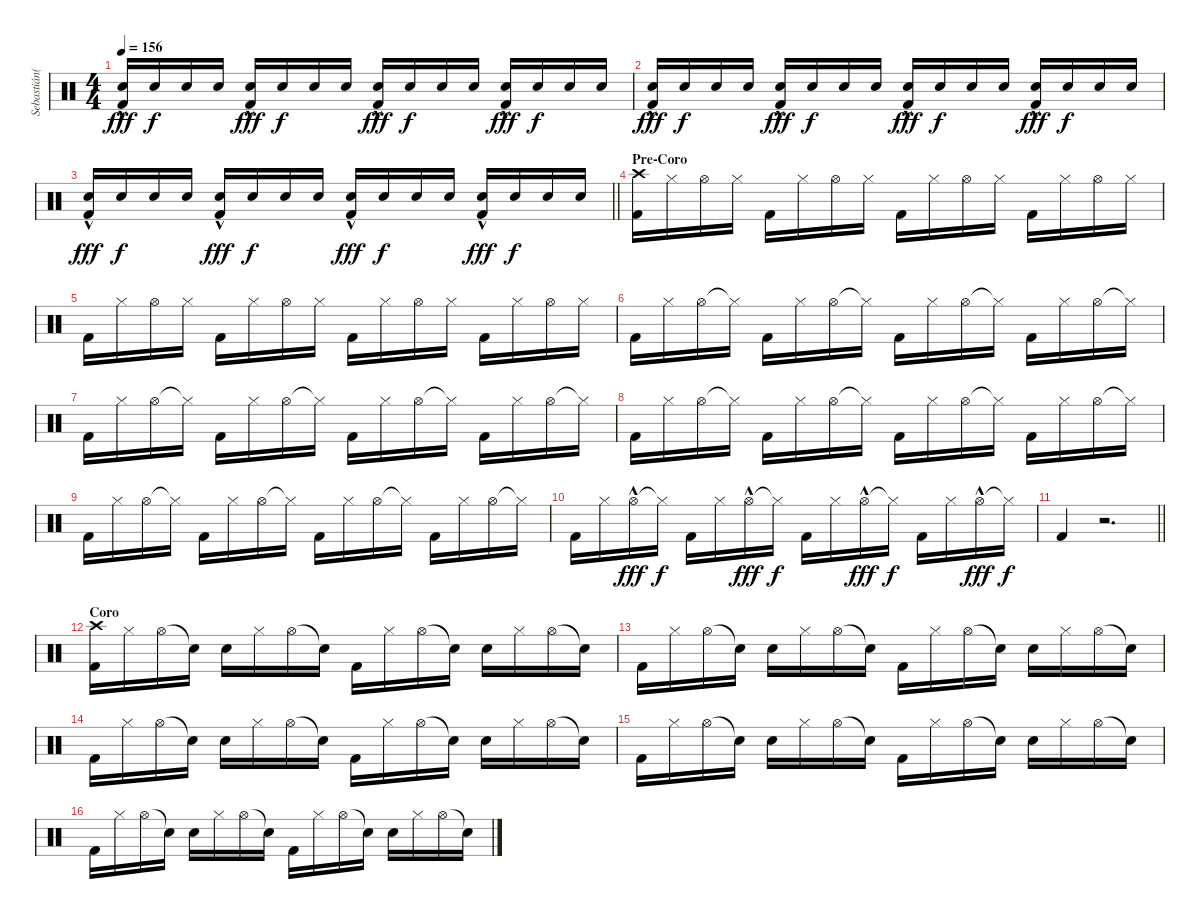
\track ("Sebastián(Percusión)" "Sebastián(") {instrument percussion}
\staff {score}
\articulation defaults
\ts (4 4)
\tempo 156
\clef neutral
\ks c
("Electric Snare (hit)"{hac} "Kick (hit) 2").16{dy fff} "Electric Snare (hit)".16{dy f} "Electric Snare (hit)".16 "Electric Snare (hit)".16 ("Electric Snare (hit)"{hac} "Kick (hit) 2").16{dy fff} "Electric Snare (hit)".16{dy f} "Electric Snare (hit)".16 "Electric Snare (hit)".16 ("Electric Snare (hit)"{hac} "Kick (hit) 2").16{dy fff} "Electric Snare (hit)".16{dy f} "Electric Snare (hit)".16 "Electric Snare (hit)".16 ("Electric Snare (hit)"{hac} "Kick (hit) 2").16{dy fff} "Electric Snare (hit)".16{dy f} "Electric Snare (hit)".16 "Electric Snare (hit)".16 |
("Electric Snare (hit)"{hac} "Kick (hit) 2").16{dy fff} "Electric Snare (hit)".16{dy f} "Electric Snare (hit)".16 "Electric Snare (hit)".16 ("Electric Snare (hit)"{hac} "Kick (hit) 2").16{dy fff} "Electric Snare (hit)".16{dy f} "Electric Snare (hit)".16 "Electric Snare (hit)".16 ("Electric Snare (hit)"{hac} "Kick (hit) 2").16{dy fff} "Electric Snare (hit)".16{dy f} "Electric Snare (hit)".16 "Electric Snare (hit)".16 ("Electric Snare (hit)"{hac} "Kick (hit) 2").16{dy fff} "Electric Snare (hit)".16{dy f} "Electric Snare (hit)".16 "Electric Snare (hit)".16 |
\barLineRight lightlight
("Electric Snare (hit)"{hac} "Kick (hit) 2").16{dy fff} "Electric Snare (hit)".16{dy f} "Electric Snare (hit)".16 "Electric Snare (hit)".16 ("Electric Snare (hit)"{hac} "Kick (hit) 2").16{dy fff} "Electric Snare (hit)".16{dy f} "Electric Snare (hit)".16 "Electric Snare (hit)".16 ("Electric Snare (hit)"{hac} "Kick (hit) 2").16{dy fff} "Electric Snare (hit)".16{dy f} "Electric Snare (hit)".16 "Electric Snare (hit)".16 ("Electric Snare (hit)"{hac} "Kick (hit) 2").16{dy fff} "Electric Snare (hit)".16{dy f} "Electric Snare (hit)".16 "Electric Snare (hit)".16 |
\section ("" "Pre-Coro")
("Crash high (hit)" "Kick (hit) 2").16 "Hi-Hat (closed)".16 "Hi-Hat (open)".16 "Hi-Hat (closed)".16 "Kick (hit) 2".16 "Hi-Hat (closed)".16 "Hi-Hat (open)".16 "Hi-Hat (closed)".16 "Kick (hit) 2".16 "Hi-Hat (closed)".16 "Hi-Hat (open)".16 "Hi-Hat (closed)".16 "Kick (hit) 2".16 "Hi-Hat (closed)".16 "Hi-Hat (open)".16 "Hi-Hat (closed)".16 |
"Kick (hit) 2".16 "Hi-Hat (closed)".16 "Hi-Hat (open)".16 "Hi-Hat (closed)".16 "Kick (hit) 2".16 "Hi-Hat (closed)".16 "Hi-Hat (open)".16 "Hi-Hat (closed)".16 "Kick (hit) 2".16 "Hi-Hat (closed)".16 "Hi-Hat (open)".16 "Hi-Hat (closed)".16 "Kick (hit) 2".16 "Hi-Hat (closed)".16 "Hi-Hat (open)".16 "Hi-Hat (closed)".16 |
"Kick (hit) 2".16 "Hi-Hat (closed)".16 "Hi-Hat (open)".16 "Hi-Hat (closed)"{t}.16 "Kick (hit) 2".16 "Hi-Hat (closed)".16 "Hi-Hat (open)".16 "Hi-Hat (closed)"{t}.16 "Kick (hit) 2".16 "Hi-Hat (closed)".16 "Hi-Hat (open)".16 "Hi-Hat (closed)"{t}.16 "Kick (hit) 2".16 "Hi-Hat (closed)".16 "Hi-Hat (open)".16 "Hi-Hat (closed)"{t}.16 |
"Kick (hit) 2".16 "Hi-Hat (closed)".16 "Hi-Hat (open)".16 "Hi-Hat (closed)"{t}.16 "Kick (hit) 2".16 "Hi-Hat (closed)".16 "Hi-Hat (open)".16 "Hi-Hat (closed)"{t}.16 "Kick (hit) 2".16 "Hi-Hat (closed)".16 "Hi-Hat (open)".16 "Hi-Hat (closed)"{t}.16 "Kick (hit) 2".16 "Hi-Hat (closed)".16 "Hi-Hat (open)".16 "Hi-Hat (closed)"{t}.16 |
"Kick (hit) 2".16 "Hi-Hat (closed)".16 "Hi-Hat (open)".16 "Hi-Hat (closed)"{t}.16 "Kick (hit) 2".16 "Hi-Hat (closed)".16 "Hi-Hat (open)".16 "Hi-Hat (closed)"{t}.16 "Kick (hit) 2".16 "Hi-Hat (closed)".16 "Hi-Hat (open)".16 "Hi-Hat (closed)"{t}.16 "Kick (hit) 2".16 "Hi-Hat (closed)".16 "Hi-Hat (open)".16 "Hi-Hat (closed)"{t}.16 |
"Kick (hit) 2".16 "Hi-Hat (closed)".16 "Hi-Hat (open)".16 "Hi-Hat (closed)"{t}.16 "Kick (hit) 2".16 "Hi-Hat (closed)".16 "Hi-Hat (open)".16 "Hi-Hat (closed)"{t}.16 "Kick (hit) 2".16 "Hi-Hat (closed)".16 "Hi-Hat (open)".16 "Hi-Hat (closed)"{t}.16 "Kick (hit) 2".16 "Hi-Hat (closed)".16 "Hi-Hat (open)".16 "Hi-Hat (closed)"{t}.16 |
"Kick (hit) 2".16 "Hi-Hat (closed)".16 "Hi-Hat (open)"{hac}.16{dy fff} "Hi-Hat (closed)"{t}.16{dy f} "Kick (hit) 2".16 "Hi-Hat (closed)".16 "Hi-Hat (open)"{hac}.16{dy fff} "Hi-Hat (closed)"{t}.16{dy f} "Kick (hit) 2".16 "Hi-Hat (closed)".16 "Hi-Hat (open)"{hac}.16{dy fff} "Hi-Hat (closed)"{t}.16{dy f} "Kick (hit) 2".16 "Hi-Hat (closed)".16 "Hi-Hat (open)"{hac}.16{dy fff} "Hi-Hat (closed)"{t}.16{dy f} |
\barLineRight lightlight "Kick (hit) 2".4
r.2{d} |
\section ("" "Coro")
("Crash high (hit)" "Kick (hit) 2").16 "Hi-Hat (closed)".16 "Hi-Hat (open)".16 "Snare (hit)"{t}.16 "Electric Snare (hit)".16 "Hi-Hat (closed)".16 "Hi-Hat (open)".16 "Snare (hit)"{t}.16 "Kick (hit) 2".16 "Hi-Hat (closed)".16 "Hi-Hat (open)".16 "Snare (hit)"{t}.16 "Electric Snare (hit)".16 "Hi-Hat (closed)".16 "Hi-Hat (open)".16 "Snare (hit)"{t}.16 |
"Kick (hit) 2".16 "Hi-Hat (closed)".16 "Hi-Hat (open)".16 "Snare (hit)"{t}.16 "Electric Snare (hit)".16 "Hi-Hat (closed)".16 "Hi-Hat (open)".16 "Snare (hit)"{t}.16 "Kick (hit) 2".16 "Hi-Hat (closed)".16 "Hi-Hat (open)".16 "Snare (hit)"{t}.16 "Electric Snare (hit)".16 "Hi-Hat (closed)".16 "Hi-Hat (open)".16 "Snare (hit)"{t}.16 |
"Kick (hit) 2".16 "Hi-Hat (closed)".16 "Hi-Hat (open)".16 "Snare (hit)"{t}.16 "Electric Snare (hit)".16 "Hi-Hat (closed)".16 "Hi-Hat (open)".16 "Snare (hit)"{t}.16 "Kick (hit) 2".16 "Hi-Hat (closed)".16 "Hi-Hat (open)".16 "Snare (hit)"{t}.16 "Electric Snare (hit)".16 "Hi-Hat (closed)".16 "Hi-Hat (open)".16 "Snare (hit)"{t}.16 |
"Kick (hit) 2".16 "Hi-Hat (closed)".16 "Hi-Hat (open)".16 "Snare (hit)"{t}.16 "Electric Snare (hit)".16 "Hi-Hat (closed)".16 "Hi-Hat (open)".16 "Snare (hit)"{t}.16 "Kick (hit) 2".16 "Hi-Hat (closed)".16 "Hi-Hat (open)".16 "Snare (hit)"{t}.16 "Electric Snare (hit)".16 "Hi-Hat (closed)".16 "Hi-Hat (open)".16 "Snare (hit)"{t}.16 |
"Kick (hit) 2".16 "Hi-Hat (closed)".16 "Hi-Hat (open)".16 "Snare (hit)"{t}.16 "Electric Snare (hit)".16 "Hi-Hat (closed)".16 "Hi-Hat (open)".16 "Snare (hit)"{t}.16 "Kick (hit) 2".16 "Hi-Hat (closed)".16 "Hi-Hat (open)".16 "Snare (hit)"{t}.16 "Electric Snare (hit)".16 "Hi-Hat (closed)".16 "Hi-Hat (open)".16 "Snare (hit)"{t}.16
